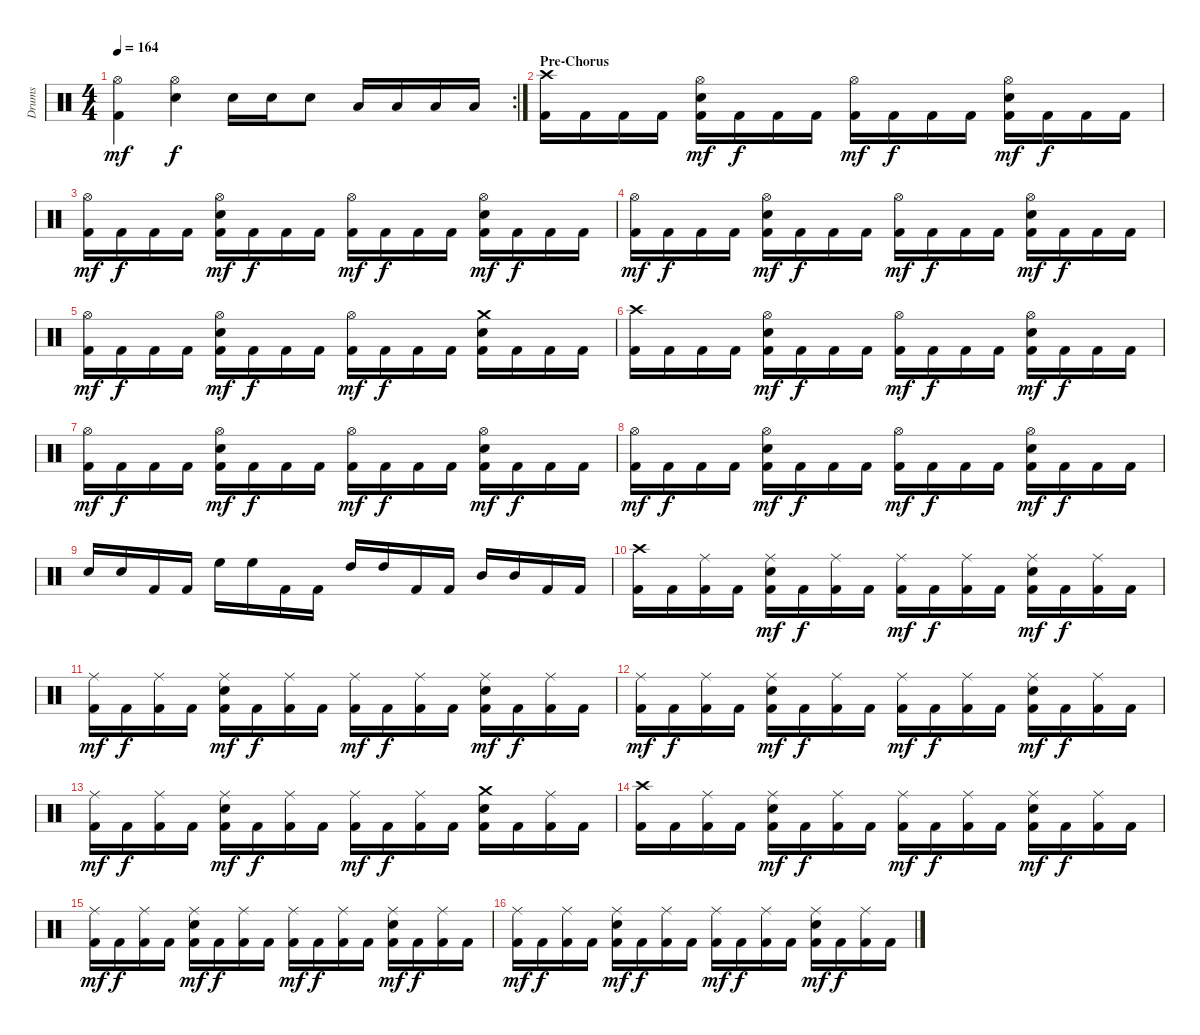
\track ("Drums" "Drums") {instrument percussion}
\staff {score}
\articulation defaults
\rc 2
\ts (4 4)
\tempo 164
\clef neutral
\ks c
("Hi-Hat (open)" "Kick (hit) 2").4{dy mf} ("Hi-Hat (open)" "Electric Snare (hit)").4{dy f} "Electric Snare (hit)".16 "Electric Snare (hit)".16 "Electric Snare (hit)".8 "Low Tom (hit)".16 "Low Tom (hit)".16 "Low Tom (hit)".16 "Low Tom (hit)".16 |
\section ("" "Pre-Chorus")
("Crash high (hit)" "Kick (hit) 2").16 "Kick (hit) 2".16 "Kick (hit) 2".16 "Kick (hit) 2".16 ("Hi-Hat (open)" "Electric Snare (hit)" "Kick (hit) 2").16{dy mf} "Kick (hit) 2".16{dy f} "Kick (hit) 2".16 "Kick (hit) 2".16 ("Hi-Hat (open)" "Kick (hit) 2").16{dy mf} "Kick (hit) 2".16{dy f} "Kick (hit) 2".16 "Kick (hit) 2".16 ("Hi-Hat (open)" "Electric Snare (hit)" "Kick (hit) 2").16{dy mf} "Kick (hit) 2".16{dy f} "Kick (hit) 2".16 "Kick (hit) 2".16 |
("Hi-Hat (open)" "Kick (hit) 2").16{dy mf} "Kick (hit) 2".16{dy f} "Kick (hit) 2".16 "Kick (hit) 2".16 ("Hi-Hat (open)" "Electric Snare (hit)" "Kick (hit) 2").16{dy mf} "Kick (hit) 2".16{dy f} "Kick (hit) 2".16 "Kick (hit) 2".16 ("Hi-Hat (open)" "Kick (hit) 2").16{dy mf} "Kick (hit) 2".16{dy f} "Kick (hit) 2".16 "Kick (hit) 2".16 ("Hi-Hat (open)" "Electric Snare (hit)" "Kick (hit) 2").16{dy mf} "Kick (hit) 2".16{dy f} "Kick (hit) 2".16 "Kick (hit) 2".16 |
("Hi-Hat (open)" "Kick (hit) 2").16{dy mf} "Kick (hit) 2".16{dy f} "Kick (hit) 2".16 "Kick (hit) 2".16 ("Hi-Hat (open)" "Electric Snare (hit)" "Kick (hit) 2").16{dy mf} "Kick (hit) 2".16{dy f} "Kick (hit) 2".16 "Kick (hit) 2".16 ("Hi-Hat (open)" "Kick (hit) 2").16{dy mf} "Kick (hit) 2".16{dy f} "Kick (hit) 2".16 "Kick (hit) 2".16 ("Hi-Hat (open)" "Electric Snare (hit)" "Kick (hit) 2").16{dy mf} "Kick (hit) 2".16{dy f} "Kick (hit) 2".16 "Kick (hit) 2".16 |
("Hi-Hat (open)" "Kick (hit) 2").16{dy mf} "Kick (hit) 2".16{dy f} "Kick (hit) 2".16 "Kick (hit) 2".16 ("Hi-Hat (open)" "Electric Snare (hit)" "Kick (hit) 2").16{dy mf} "Kick (hit) 2".16{dy f} "Kick (hit) 2".16 "Kick (hit) 2".16 ("Hi-Hat (open)" "Kick (hit) 2").16{dy mf} "Kick (hit) 2".16{dy f} "Kick (hit) 2".16 "Kick (hit) 2".16 ("Crash medium (hit)" "Electric Snare (hit)" "Kick (hit) 2").16 "Kick (hit) 2".16 "Kick (hit) 2".16 "Kick (hit) 2".16 |
("Crash high (hit)" "Kick (hit) 2").16 "Kick (hit) 2".16 "Kick (hit) 2".16 "Kick (hit) 2".16 ("Hi-Hat (open)" "Electric Snare (hit)" "Kick (hit) 2").16{dy mf} "Kick (hit) 2".16{dy f} "Kick (hit) 2".16 "Kick (hit) 2".16 ("Hi-Hat (open)" "Kick (hit) 2").16{dy mf} "Kick (hit) 2".16{dy f} "Kick (hit) 2".16 "Kick (hit) 2".16 ("Hi-Hat (open)" "Electric Snare (hit)" "Kick (hit) 2").16{dy mf} "Kick (hit) 2".16{dy f} "Kick (hit) 2".16 "Kick (hit) 2".16 |
("Hi-Hat (open)" "Kick (hit) 2").16{dy mf} "Kick (hit) 2".16{dy f} "Kick (hit) 2".16 "Kick (hit) 2".16 ("Hi-Hat (open)" "Electric Snare (hit)" "Kick (hit) 2").16{dy mf} "Kick (hit) 2".16{dy f} "Kick (hit) 2".16 "Kick (hit) 2".16 ("Hi-Hat (open)" "Kick (hit) 2").16{dy mf} "Kick (hit) 2".16{dy f} "Kick (hit) 2".16 "Kick (hit) 2".16 ("Hi-Hat (open)" "Electric Snare (hit)" "Kick (hit) 2").16{dy mf} "Kick (hit) 2".16{dy f} "Kick (hit) 2".16 "Kick (hit) 2".16 |
("Hi-Hat (open)" "Kick (hit) 2").16{dy mf} "Kick (hit) 2".16{dy f} "Kick (hit) 2".16 "Kick (hit) 2".16 ("Hi-Hat (open)" "Electric Snare (hit)" "Kick (hit) 2").16{dy mf} "Kick (hit) 2".16{dy f} "Kick (hit) 2".16 "Kick (hit) 2".16 ("Hi-Hat (open)" "Kick (hit) 2").16{dy mf} "Kick (hit) 2".16{dy f} "Kick (hit) 2".16 "Kick (hit) 2".16 ("Hi-Hat (open)" "Electric Snare (hit)" "Kick (hit) 2").16{dy mf} "Kick (hit) 2".16{dy f} "Kick (hit) 2".16 "Kick (hit) 2".16 |
"Electric Snare (hit)".16 "Electric Snare (hit)".16 "Kick (hit) 2".16 "Kick (hit) 2".16 "High Floor Tom (hit)".16 "High Floor Tom (hit)".16 "Kick (hit) 2".16 "Kick (hit) 2".16 "High Tom (hit)".16 "High Tom (hit)".16 "Kick (hit) 2".16 "Kick (hit) 2".16 "Mid Tom (hit)".16 "Mid Tom (hit)".16 "Kick (hit) 2".16 "Kick (hit) 2".16 |
("Crash high (hit)" "Kick (hit) 2").16 "Kick (hit) 2".16 ("Ride (middle)" "Kick (hit) 2").16 "Kick (hit) 2".16 ("Ride (middle)" "Electric Snare (hit)" "Kick (hit) 2").16{dy mf} "Kick (hit) 2".16{dy f} ("Ride (middle)" "Kick (hit) 2").16 "Kick (hit) 2".16 ("Ride (middle)" "Kick (hit) 2").16{dy mf} "Kick (hit) 2".16{dy f} ("Ride (middle)" "Kick (hit) 2").16 "Kick (hit) 2".16 ("Ride (middle)" "Electric Snare (hit)" "Kick (hit) 2").16{dy mf} "Kick (hit) 2".16{dy f} ("Ride (middle)" "Kick (hit) 2").16 "Kick (hit) 2".16 |
("Ride (middle)" "Kick (hit) 2").16{dy mf} "Kick (hit) 2".16{dy f} ("Ride (middle)" "Kick (hit) 2").16 "Kick (hit) 2".16 ("Ride (middle)" "Electric Snare (hit)" "Kick (hit) 2").16{dy mf} "Kick (hit) 2".16{dy f} ("Ride (middle)" "Kick (hit) 2").16 "Kick (hit) 2".16 ("Ride (middle)" "Kick (hit) 2").16{dy mf} "Kick (hit) 2".16{dy f} ("Ride (middle)" "Kick (hit) 2").16 "Kick (hit) 2".16 ("Ride (middle)" "Electric Snare (hit)" "Kick (hit) 2").16{dy mf} "Kick (hit) 2".16{dy f} ("Ride (middle)" "Kick (hit) 2").16 "Kick (hit) 2".16 |
("Ride (middle)" "Kick (hit) 2").16{dy mf} "Kick (hit) 2".16{dy f} ("Ride (middle)" "Kick (hit) 2").16 "Kick (hit) 2".16 ("Ride (middle)" "Electric Snare (hit)" "Kick (hit) 2").16{dy mf} "Kick (hit) 2".16{dy f} ("Ride (middle)" "Kick (hit) 2").16 "Kick (hit) 2".16 ("Ride (middle)" "Kick (hit) 2").16{dy mf} "Kick (hit) 2".16{dy f} ("Ride (middle)" "Kick (hit) 2").16 "Kick (hit) 2".16 ("Ride (middle)" "Electric Snare (hit)" "Kick (hit) 2").16{dy mf} "Kick (hit) 2".16{dy f} ("Ride (middle)" "Kick (hit) 2").16 "Kick (hit) 2".16 |
("Ride (middle)" "Kick (hit) 2").16{dy mf} "Kick (hit) 2".16{dy f} ("Ride (middle)" "Kick (hit) 2").16 "Kick (hit) 2".16 ("Ride (middle)" "Electric Snare (hit)" "Kick (hit) 2").16{dy mf} "Kick (hit) 2".16{dy f} ("Ride (middle)" "Kick (hit) 2").16 "Kick (hit) 2".16 ("Ride (middle)" "Kick (hit) 2").16{dy mf} "Kick (hit) 2".16{dy f} ("Ride (middle)" "Kick (hit) 2").16 "Kick (hit) 2".16 ("Crash medium (hit)" "Electric Snare (hit)" "Kick (hit) 2").16 "Kick (hit) 2".16 ("Ride (middle)" "Kick (hit) 2").16 "Kick (hit) 2".16 |
("Crash high (hit)" "Kick (hit) 2").16 "Kick (hit) 2".16 ("Ride (middle)" "Kick (hit) 2").16 "Kick (hit) 2".16 ("Ride (middle)" "Electric Snare (hit)" "Kick (hit) 2").16{dy mf} "Kick (hit) 2".16{dy f} ("Ride (middle)" "Kick (hit) 2").16 "Kick (hit) 2".16 ("Ride (middle)" "Kick (hit) 2").16{dy mf} "Kick (hit) 2".16{dy f} ("Ride (middle)" "Kick (hit) 2").16 "Kick (hit) 2".16 ("Ride (middle)" "Electric Snare (hit)" "Kick (hit) 2").16{dy mf} "Kick (hit) 2".16{dy f} ("Ride (middle)" "Kick (hit) 2").16 "Kick (hit) 2".16 |
("Ride (middle)" "Kick (hit) 2").16{dy mf} "Kick (hit) 2".16{dy f} ("Ride (middle)" "Kick (hit) 2").16 "Kick (hit) 2".16 ("Ride (middle)" "Electric Snare (hit)" "Kick (hit) 2").16{dy mf} "Kick (hit) 2".16{dy f} ("Ride (middle)" "Kick (hit) 2").16 "Kick (hit) 2".16 ("Ride (middle)" "Kick (hit) 2").16{dy mf} "Kick (hit) 2".16{dy f} ("Ride (middle)" "Kick (hit) 2").16 "Kick (hit) 2".16 ("Ride (middle)" "Electric Snare (hit)" "Kick (hit) 2").16{dy mf} "Kick (hit) 2".16{dy f} ("Ride (middle)" "Kick (hit) 2").16 "Kick (hit) 2".16 |
("Ride (middle)" "Kick (hit) 2").16{dy mf} "Kick (hit) 2".16{dy f} ("Ride (middle)" "Kick (hit) 2").16 "Kick (hit) 2".16 ("Ride (middle)" "Electric Snare (hit)" "Kick (hit) 2").16{dy mf} "Kick (hit) 2".16{dy f} ("Ride (middle)" "Kick (hit) 2").16 "Kick (hit) 2".16 ("Ride (middle)" "Kick (hit) 2").16{dy mf} "Kick (hit) 2".16{dy f} ("Ride (middle)" "Kick (hit) 2").16 "Kick (hit) 2".16 ("Ride (middle)" "Electric Snare (hit)" "Kick (hit) 2").16{dy mf} "Kick (hit) 2".16{dy f} ("Ride (middle)" "Kick (hit) 2").16 "Kick (hit) 2".16
